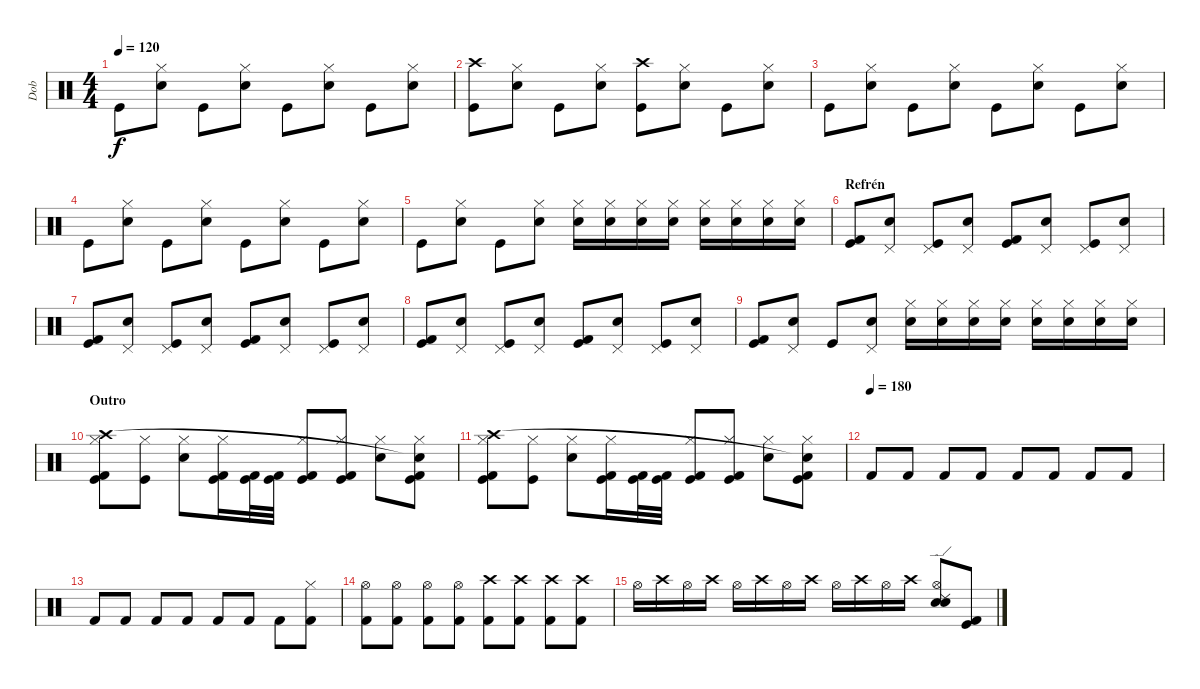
\track ("Dob" "Dob") {instrument percussion}
\staff {score}
\articulation defaults
\ts (4 4)
\tempo 120
\clef neutral
\ks c "Kick (hit)".8{dy f}
("Hi-Hat (closed)" "Electric Snare (hit)").8 "Kick (hit)".8 ("Hi-Hat (closed)" "Electric Snare (hit)").8 "Kick (hit)".8 ("Hi-Hat (closed)" "Electric Snare (hit)").8 "Kick (hit)".8 ("Hi-Hat (closed)" "Electric Snare (hit)").8 |
("Kick (hit)" "Crash high (hit)").8 ("Hi-Hat (closed)" "Electric Snare (hit)").8 "Kick (hit)".8 ("Hi-Hat (closed)" "Electric Snare (hit)").8 ("Kick (hit)" "Crash high (hit)").8 ("Hi-Hat (closed)" "Electric Snare (hit)").8 "Kick (hit)".8 ("Hi-Hat (closed)" "Electric Snare (hit)").8 |
"Kick (hit)".8 ("Hi-Hat (closed)" "Electric Snare (hit)").8 "Kick (hit)".8 ("Hi-Hat (closed)" "Electric Snare (hit)").8 "Kick (hit)".8 ("Hi-Hat (closed)" "Electric Snare (hit)").8 "Kick (hit)".8 ("Hi-Hat (closed)" "Electric Snare (hit)").8 |
"Kick (hit)".8 ("Hi-Hat (closed)" "Electric Snare (hit)").8 "Kick (hit)".8 ("Hi-Hat (closed)" "Electric Snare (hit)").8 "Kick (hit)".8 ("Hi-Hat (closed)" "Electric Snare (hit)").8 "Kick (hit)".8 ("Hi-Hat (closed)" "Electric Snare (hit)").8 |
"Kick (hit)".8 ("Hi-Hat (closed)" "Electric Snare (hit)").8 "Kick (hit)".8 ("Hi-Hat (closed)" "Electric Snare (hit)").8 ("Hi-Hat (closed)" "Electric Snare (hit)").16 ("Hi-Hat (closed)" "Electric Snare (hit)").16 ("Hi-Hat (closed)" "Electric Snare (hit)").16 ("Hi-Hat (closed)" "Electric Snare (hit)").16 ("Hi-Hat (closed)" "Electric Snare (hit)").16 ("Hi-Hat (closed)" "Electric Snare (hit)").16 ("Hi-Hat (closed)" "Electric Snare (hit)").16 ("Hi-Hat (closed)" "Electric Snare (hit)").16 |
\section ("" "Refrén")
("Kick (hit)" "Kick (hit) 2").8 ("Pedal Hi-Hat (hit)" "Electric Snare (hit)").8 ("Pedal Hi-Hat (hit)" "Kick (hit)").8 ("Pedal Hi-Hat (hit)" "Electric Snare (hit)").8 ("Kick (hit)" "Kick (hit) 2").8 ("Pedal Hi-Hat (hit)" "Electric Snare (hit)").8 ("Pedal Hi-Hat (hit)" "Kick (hit)").8 ("Pedal Hi-Hat (hit)" "Electric Snare (hit)").8 |
("Kick (hit)" "Kick (hit) 2").8 ("Pedal Hi-Hat (hit)" "Electric Snare (hit)").8 ("Pedal Hi-Hat (hit)" "Kick (hit)").8 ("Pedal Hi-Hat (hit)" "Electric Snare (hit)").8 ("Kick (hit)" "Kick (hit) 2").8 ("Pedal Hi-Hat (hit)" "Electric Snare (hit)").8 ("Pedal Hi-Hat (hit)" "Kick (hit)").8 ("Pedal Hi-Hat (hit)" "Electric Snare (hit)").8 |
("Kick (hit)" "Kick (hit) 2").8 ("Pedal Hi-Hat (hit)" "Electric Snare (hit)").8 ("Pedal Hi-Hat (hit)" "Kick (hit)").8 ("Pedal Hi-Hat (hit)" "Electric Snare (hit)").8 ("Kick (hit)" "Kick (hit) 2").8 ("Pedal Hi-Hat (hit)" "Electric Snare (hit)").8 ("Pedal Hi-Hat (hit)" "Kick (hit)").8 ("Pedal Hi-Hat (hit)" "Electric Snare (hit)").8 |
("Kick (hit)" "Kick (hit) 2").8 ("Pedal Hi-Hat (hit)" "Electric Snare (hit)").8 "Kick (hit)".8 ("Pedal Hi-Hat (hit)" "Electric Snare (hit)").8 ("Hi-Hat (closed)" "Electric Snare (hit)").16 ("Hi-Hat (closed)" "Electric Snare (hit)").16 ("Hi-Hat (closed)" "Electric Snare (hit)").16 ("Hi-Hat (closed)" "Electric Snare (hit)").16 ("Hi-Hat (closed)" "Electric Snare (hit)").16 ("Hi-Hat (closed)" "Electric Snare (hit)").16 ("Hi-Hat (closed)" "Electric Snare (hit)").16 ("Hi-Hat (closed)" "Electric Snare (hit)").16 |
\section ("" "Outro")
("Hi-Hat (closed)" "Kick (hit) 2" "Kick (hit)" "Crash high (hit)").8 ("Hi-Hat (closed)" "Kick (hit)").8 ("Hi-Hat (closed)" "Electric Snare (hit)").8 ("Hi-Hat (closed)" "Kick (hit) 2" "Kick (hit)").16 ("Kick (hit) 2" "Kick (hit)").32 ("Kick (hit) 2" "Kick (hit)").32 ("Hi-Hat (closed)" "Kick (hit) 2" "Kick (hit)").8 ("Hi-Hat (closed)" "Kick (hit) 2" "Kick (hit)").8 ("Hi-Hat (closed)" "Electric Snare (hit)").8 ("Hi-Hat (closed)" "Kick (hit) 2" "Kick (hit)" "Snare (hit)"{t}).8 |
("Hi-Hat (closed)" "Kick (hit) 2" "Kick (hit)" "Crash high (hit)").8 ("Hi-Hat (closed)" "Kick (hit)").8 ("Hi-Hat (closed)" "Electric Snare (hit)").8 ("Hi-Hat (closed)" "Kick (hit) 2" "Kick (hit)").16 ("Kick (hit) 2" "Kick (hit)").32 ("Kick (hit) 2" "Kick (hit)").32 ("Hi-Hat (closed)" "Kick (hit) 2" "Kick (hit)").8 ("Hi-Hat (closed)" "Kick (hit) 2" "Kick (hit)").8 ("Hi-Hat (closed)" "Electric Snare (hit)").8 ("Hi-Hat (closed)" "Kick (hit) 2" "Kick (hit)" "Snare (hit)"{t}).8 |
\tempo (180)
"Kick (hit) 2".8 "Kick (hit) 2".8 "Kick (hit) 2".8 "Kick (hit) 2".8 "Kick (hit) 2".8 "Kick (hit) 2".8 "Kick (hit) 2".8 "Kick (hit) 2".8 |
"Kick (hit) 2".8 "Kick (hit) 2".8 "Kick (hit) 2".8 "Kick (hit) 2".8 "Kick (hit) 2".8 "Kick (hit) 2".8 "Kick (hit) 2".8 ("Kick (hit) 2" "Hi-Hat (closed)").8 |
("Kick (hit) 2" "Hi-Hat (open)").8 ("Kick (hit) 2" "Hi-Hat (open)").8 ("Kick (hit) 2" "Hi-Hat (open)").8 ("Kick (hit) 2" "Hi-Hat (open)").8 ("Kick (hit) 2" "Crash high (hit)").8 ("Kick (hit) 2" "Crash high (hit)").8 ("Kick (hit) 2" "Crash high (hit)").8 ("Kick (hit) 2" "Crash high (hit)").8 |
"Hi-Hat (open)".16 "Crash high (hit)".16 "Hi-Hat (open)".16 "Crash high (hit)".16 "Hi-Hat (open)".16 "Crash high (hit)".16 "Hi-Hat (open)".16 "Crash high (hit)".16 "Hi-Hat (open)".16 "Crash high (hit)".16 "Hi-Hat (open)".16 "Crash high (hit)".16 ("Electric Snare (hit)" "Electric Snare (hit)" "Hi-Hat (open)" "Ride (edge) 2").8 ("Kick (hit) 2" "Kick (hit)").8
